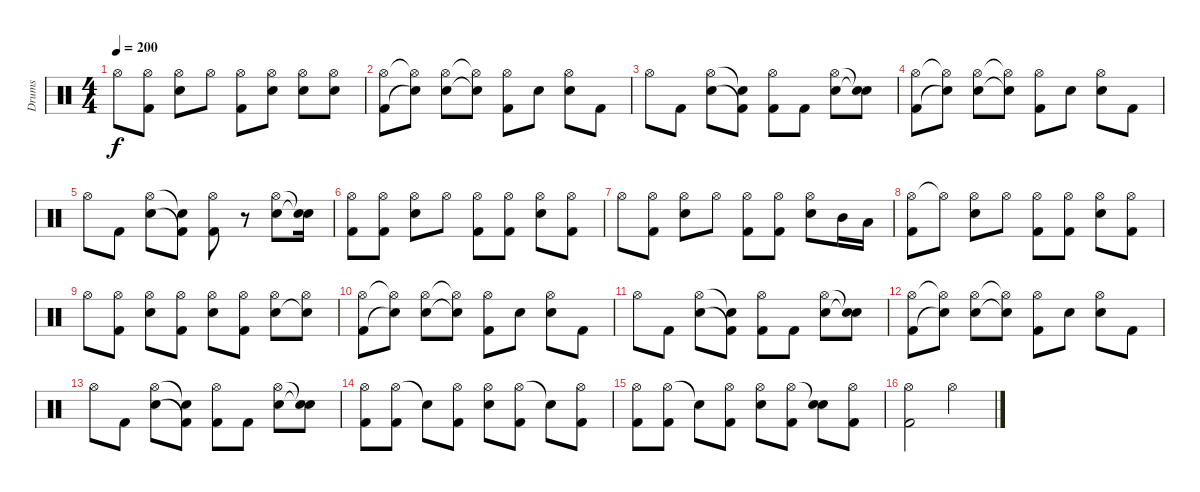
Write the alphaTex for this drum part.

\track ("Drums" "Drums") {instrument percussion}
\staff {score}
\articulation defaults
\ts (4 4)
\tempo 200
\clef neutral
\ks c "Hi-Hat (open)".8{dy f}
("Hi-Hat (open)" "Kick (hit) 2").8 ("Hi-Hat (open)" "Electric Snare (hit)").8 "Hi-Hat (open)".8 ("Hi-Hat (open)" "Kick (hit) 2").8 ("Hi-Hat (open)" "Electric Snare (hit)").8 ("Hi-Hat (open)" "Electric Snare (hit)").8 ("Hi-Hat (open)" "Electric Snare (hit)").8 |
("Hi-Hat (open)" "Kick (hit) 2").8 ("Hi-Hat (open)"{t} "Electric Snare (hit)"{t}).8 ("Hi-Hat (open)" "Electric Snare (hit)").8 ("Hi-Hat (open)"{t} "Electric Snare (hit)"{t}).8 ("Hi-Hat (open)" "Kick (hit) 2").8 "Electric Snare (hit)".8 ("Hi-Hat (open)" "Electric Snare (hit)").8 "Kick (hit) 2".8 |
"Hi-Hat (open)".8 "Kick (hit) 2".8 ("Hi-Hat (open)" "Electric Snare (hit)").8 ("Snare (hit)"{t} "Kick (hit) 2"{t}).8 ("Hi-Hat (open)" "Kick (hit) 2").8 "Kick (hit) 2".8 ("Hi-Hat (open)" "Electric Snare (hit)").8 ("Snare (hit)"{t} "Snare (hit)"{t}).8 |
("Hi-Hat (open)" "Kick (hit) 2").8 ("Hi-Hat (open)"{t} "Electric Snare (hit)"{t}).8 ("Hi-Hat (open)" "Electric Snare (hit)").8 ("Hi-Hat (open)"{t} "Electric Snare (hit)"{t}).8 ("Hi-Hat (open)" "Kick (hit) 2").8 "Electric Snare (hit)".8 ("Hi-Hat (open)" "Electric Snare (hit)").8 "Kick (hit) 2".8 |
"Hi-Hat (open)".8 "Kick (hit) 2".8 ("Hi-Hat (open)" "Electric Snare (hit)").8 ("Snare (hit)"{t} "Kick (hit) 2"{t}).8 ("Hi-Hat (open)" "Kick (hit) 2").8 r.8 ("Hi-Hat (open)" "Electric Snare (hit)").8 ("Snare (hit)"{t} "Electric Snare (hit)"{t}).16 |
("Hi-Hat (open)" "Kick (hit) 2").8 ("Hi-Hat (open)" "Kick (hit) 2").8 ("Hi-Hat (open)" "Electric Snare (hit)").8 "Hi-Hat (open)".8 ("Hi-Hat (open)" "Kick (hit) 2").8 ("Hi-Hat (open)" "Kick (hit) 2").8 ("Hi-Hat (open)" "Electric Snare (hit)").8 ("Hi-Hat (open)" "Kick (hit) 2").8 |
"Hi-Hat (open)".8 ("Hi-Hat (open)" "Kick (hit) 2").8 ("Hi-Hat (open)" "Electric Snare (hit)").8 "Hi-Hat (open)".8 ("Hi-Hat (open)" "Kick (hit) 2").8 ("Hi-Hat (open)" "Kick (hit) 2").8 ("Hi-Hat (open)" "Electric Snare (hit)").8 "Mid Tom (hit)".16 "Low Tom (hit)".16 |
("Hi-Hat (open)" "Kick (hit) 2").8 "Hi-Hat (open)"{t}.8 ("Hi-Hat (open)" "Electric Snare (hit)").8 "Hi-Hat (open)".8 ("Hi-Hat (open)" "Kick (hit) 2").8 ("Hi-Hat (open)" "Kick (hit) 2").8 ("Hi-Hat (open)" "Electric Snare (hit)").8 ("Hi-Hat (open)" "Kick (hit) 2").8 |
"Hi-Hat (open)".8 ("Hi-Hat (open)" "Kick (hit) 2").8 ("Hi-Hat (open)" "Electric Snare (hit)").8 ("Hi-Hat (open)" "Kick (hit) 2").8 ("Hi-Hat (open)" "Electric Snare (hit)").8 ("Hi-Hat (open)" "Kick (hit) 2").8 ("Hi-Hat (open)" "Electric Snare (hit)").8 ("Hi-Hat (open)" "Snare (hit)"{t}).8 |
("Hi-Hat (open)" "Kick (hit) 2").8 ("Hi-Hat (open)"{t} "Electric Snare (hit)"{t}).8 ("Hi-Hat (open)" "Electric Snare (hit)").8 ("Hi-Hat (open)"{t} "Electric Snare (hit)"{t}).8 ("Hi-Hat (open)" "Kick (hit) 2").8 "Electric Snare (hit)".8 ("Hi-Hat (open)" "Electric Snare (hit)").8 "Kick (hit) 2".8 |
"Hi-Hat (open)".8 "Kick (hit) 2".8 ("Hi-Hat (open)" "Electric Snare (hit)").8 ("Snare (hit)"{t} "Kick (hit) 2"{t}).8 ("Hi-Hat (open)" "Kick (hit) 2").8 "Kick (hit) 2".8 ("Hi-Hat (open)" "Electric Snare (hit)").8 ("Snare (hit)"{t} "Snare (hit)"{t}).8 |
("Hi-Hat (open)" "Kick (hit) 2").8 ("Hi-Hat (open)"{t} "Electric Snare (hit)"{t}).8 ("Hi-Hat (open)" "Electric Snare (hit)").8 ("Hi-Hat (open)"{t} "Electric Snare (hit)"{t}).8 ("Hi-Hat (open)" "Kick (hit) 2").8 "Electric Snare (hit)".8 ("Hi-Hat (open)" "Electric Snare (hit)").8 "Kick (hit) 2".8 |
"Hi-Hat (open)".8 "Kick (hit) 2".8 ("Hi-Hat (open)" "Electric Snare (hit)").8 ("Snare (hit)"{t} "Kick (hit) 2"{t}).8 ("Hi-Hat (open)" "Kick (hit) 2").8 "Kick (hit) 2".8 ("Hi-Hat (open)" "Electric Snare (hit)").8 ("Snare (hit)"{t} "Snare (hit)"{t}).8 |
("Hi-Hat (open)" "Kick (hit) 2").8 ("Hi-Hat (open)" "Kick (hit) 2").8 "Snare (hit)"{t}.8 ("Hi-Hat (open)" "Kick (hit) 2").8 ("Hi-Hat (open)" "Electric Snare (hit)").8 ("Hi-Hat (open)" "Kick (hit) 2").8 "Snare (hit)"{t}.8 ("Hi-Hat (open)" "Kick (hit) 2").8 |
("Hi-Hat (open)" "Kick (hit) 2").8 ("Hi-Hat (open)" "Kick (hit) 2").8 "Snare (hit)"{t}.8 ("Hi-Hat (open)" "Kick (hit) 2").8 ("Hi-Hat (open)" "Electric Snare (hit)").8 ("Hi-Hat (open)" "Kick (hit) 2").8 ("Snare (hit)"{t} "Electric Snare (hit)").8 ("Hi-Hat (open)" "Kick (hit) 2").8 |
("Hi-Hat (open)" "Kick (hit) 2").2 "Hi-Hat (open)".2
